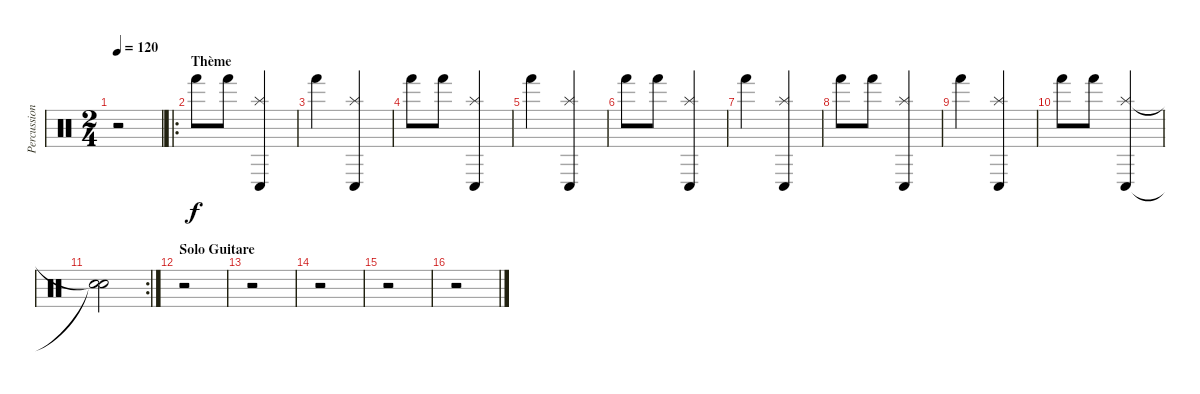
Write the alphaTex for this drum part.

\track ("Percussions" "Percussion") {instrument percussion}
\staff {score}
\articulation defaults
\ts (2 4)
\tempo 120
\clef neutral
\ks c
r.2{dy f} |
\ro
\section ("" "Thème")
"Hand (hit)".8 "Hand (hit)".8 ("Conga low (hit)" "Splash (hit)").4 |
"Hand (hit)".4 ("Conga low (hit)" "Splash (hit)").4 |
"Hand (hit)".8 "Hand (hit)".8 ("Conga low (hit)" "Splash (hit)").4 |
"Hand (hit)".4 ("Conga low (hit)" "Splash (hit)").4 |
"Hand (hit)".8 "Hand (hit)".8 ("Conga low (hit)" "Splash (hit)").4 |
"Hand (hit)".4 ("Conga low (hit)" "Splash (hit)").4 |
"Hand (hit)".8 "Hand (hit)".8 ("Conga low (hit)" "Splash (hit)").4 |
"Hand (hit)".4 ("Conga low (hit)" "Splash (hit)").4 |
"Hand (hit)".8 "Hand (hit)".8 ("Conga low (hit)" "Splash (hit)").4 |
\rc 2
("Snare (hit)"{t} "Snare (hit)"{t}).2 |
\section ("" "Solo Guitare")
r.2 |
r.2 |
r.2 |
r.2 |
r.2
